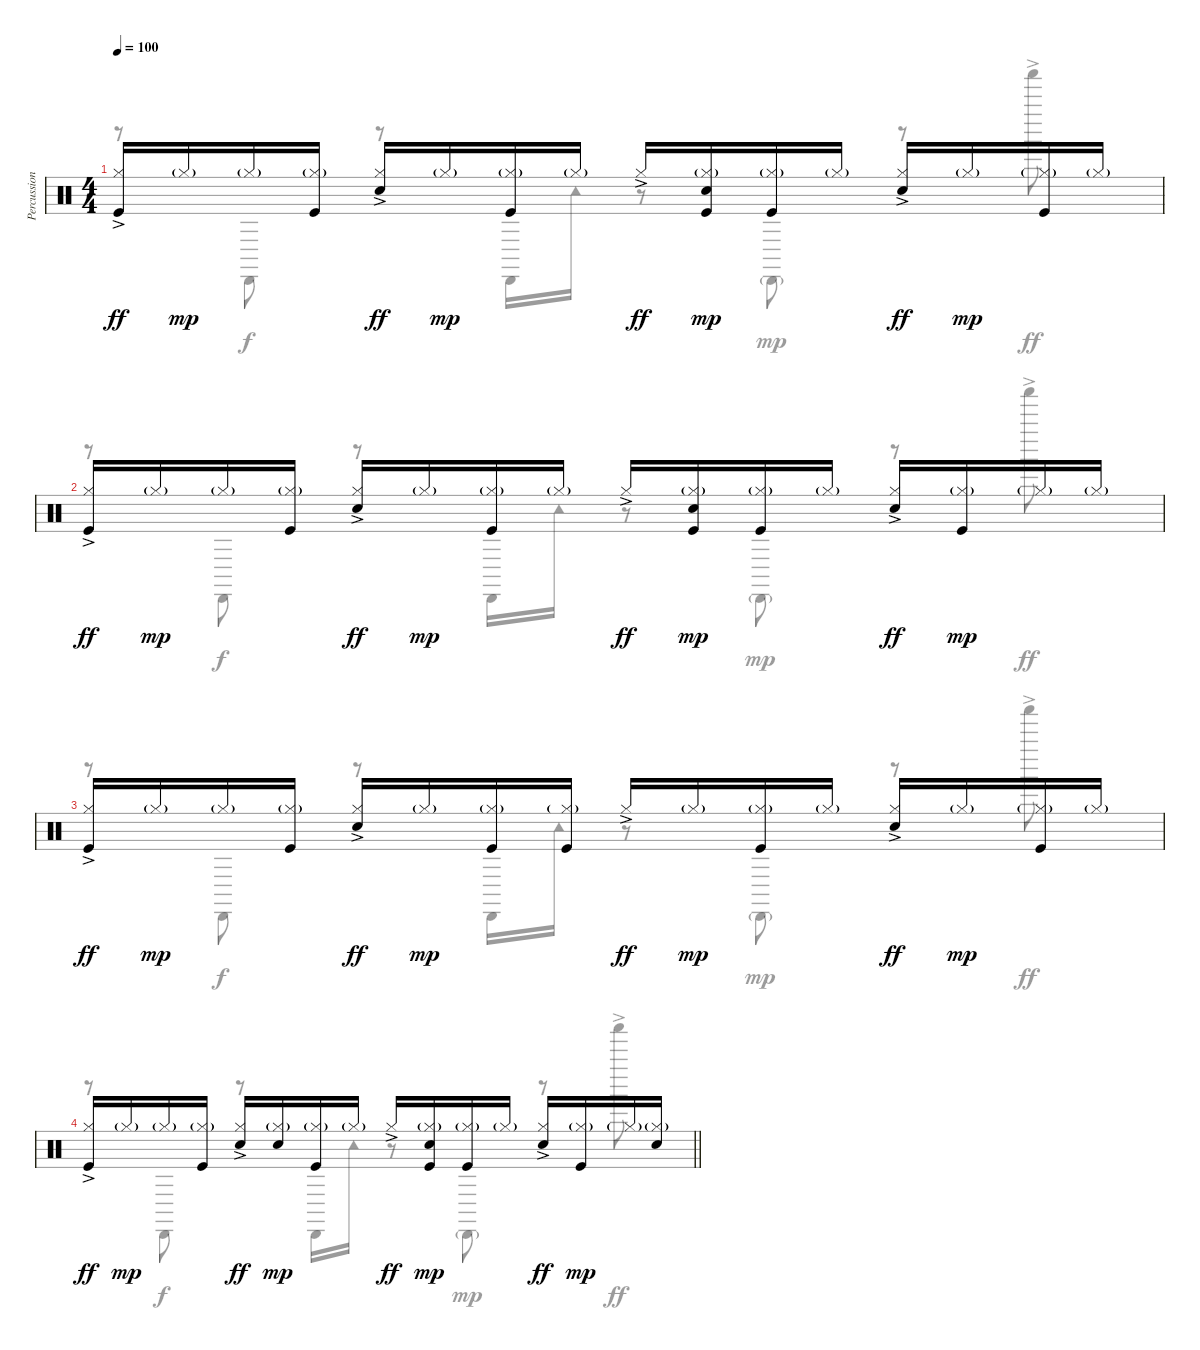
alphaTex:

\track ("Percussions" "Percussion") {instrument percussion}
\staff {score}
\articulation defaults
\voice
\ts (4 4)
\tempo 100
\clef neutral
\ks c
("Kick (hit)" "Hi-Hat (closed)"{ac}).16{dy ff} "Hi-Hat (closed)"{g}.16{dy mp} "Hi-Hat (closed)"{g}.16 ("Kick (hit)" "Hi-Hat (closed)"{g}).16 ("Electric Snare (hit)" "Hi-Hat (closed)"{ac}).16{dy ff} "Hi-Hat (closed)"{g}.16{dy mp} ("Kick (hit)" "Hi-Hat (closed)"{g}).16 "Hi-Hat (closed)"{g}.16 "Hi-Hat (closed)"{ac}.16{dy ff} ("Kick (hit)" "Electric Snare (hit)" "Hi-Hat (closed)"{g}).16{dy mp} ("Kick (hit)" "Hi-Hat (closed)"{g}).16 "Hi-Hat (closed)"{g}.16 ("Snare (hit) 2" "Hi-Hat (closed)"{ac}).16{dy ff} "Hi-Hat (closed)"{g}.16{dy mp} ("Kick (hit)" "Hi-Hat (closed)"{g}).16 "Hi-Hat (closed)"{g}.16 |
("Kick (hit)" "Hi-Hat (closed)"{ac}).16{dy ff} "Hi-Hat (closed)"{g}.16{dy mp} "Hi-Hat (closed)"{g}.16 ("Kick (hit)" "Hi-Hat (closed)"{g}).16 ("Electric Snare (hit)" "Hi-Hat (closed)"{ac}).16{dy ff} "Hi-Hat (closed)"{g}.16{dy mp} ("Kick (hit)" "Hi-Hat (closed)"{g}).16 "Hi-Hat (closed)"{g}.16 "Hi-Hat (closed)"{ac}.16{dy ff} ("Kick (hit)" "Electric Snare (hit)" "Hi-Hat (closed)"{g}).16{dy mp} ("Kick (hit)" "Hi-Hat (closed)"{g}).16 "Hi-Hat (closed)"{g}.16 ("Snare (hit) 2" "Hi-Hat (closed)"{ac}).16{dy ff} ("Kick (hit)" "Hi-Hat (closed)"{g}).16{dy mp} "Hi-Hat (closed)"{g}.16 "Hi-Hat (closed)"{g}.16 |
("Kick (hit)" "Hi-Hat (closed)"{ac}).16{dy ff} "Hi-Hat (closed)"{g}.16{dy mp} "Hi-Hat (closed)"{g}.16 ("Kick (hit)" "Hi-Hat (closed)"{g}).16 ("Electric Snare (hit)" "Hi-Hat (closed)"{ac}).16{dy ff} "Hi-Hat (closed)"{g}.16{dy mp} ("Kick (hit)" "Hi-Hat (closed)"{g}).16 ("Kick (hit)" "Hi-Hat (closed)"{g}).16 "Hi-Hat (closed)"{ac}.16{dy ff} "Hi-Hat (closed)"{g}.16{dy mp} ("Kick (hit)" "Hi-Hat (closed)"{g}).16 "Hi-Hat (closed)"{g}.16 ("Snare (hit) 2" "Hi-Hat (closed)"{ac}).16{dy ff} "Hi-Hat (closed)"{g}.16{dy mp} ("Kick (hit)" "Hi-Hat (closed)"{g}).16 "Hi-Hat (closed)"{g}.16 |
\barLineRight lightlight
("Kick (hit)" "Hi-Hat (closed)"{ac}).16{dy ff} "Hi-Hat (closed)"{g}.16{dy mp} "Hi-Hat (closed)"{g}.16 ("Kick (hit)" "Hi-Hat (closed)"{g}).16 ("Electric Snare (hit)" "Hi-Hat (closed)"{ac}).16{dy ff} ("Electric Snare (hit)" "Hi-Hat (closed)"{g}).16{dy mp} ("Kick (hit)" "Hi-Hat (closed)"{g}).16 "Hi-Hat (closed)"{g}.16 "Hi-Hat (closed)"{ac}.16{dy ff} ("Kick (hit)" "Electric Snare (hit)" "Hi-Hat (closed)"{g}).16{dy mp} ("Kick (hit)" "Hi-Hat (closed)"{g}).16 "Hi-Hat (closed)"{g}.16 ("Electric Snare (hit)" "Hi-Hat (closed)"{ac}).16{dy ff} ("Kick (hit)" "Hi-Hat (closed)"{g}).16{dy mp} "Hi-Hat (closed)"{g}.16 ("Electric Snare (hit)" "Hi-Hat (closed)"{g}).16
\voice
\clef neutral
\ottava regular
\simile none
\ks c
r.8{dy ff} "Cabasa (hit)".8{dy f} r.8 "Cabasa (hit)".16 "Tambourine (hit)".16 r.8 "Cabasa (hit)"{g}.8{dy mp} r.8 "Shaker (hit)"{ac}.8{dy ff} |
r.8 "Cabasa (hit)".8{dy f} r.8 "Cabasa (hit)".16 "Tambourine (hit)".16 r.8 "Cabasa (hit)"{g}.8{dy mp} r.8 "Shaker (hit)"{ac}.8{dy ff} |
r.8 "Cabasa (hit)".8{dy f} r.8 "Cabasa (hit)".16 "Tambourine (hit)".16 r.8 "Cabasa (hit)"{g}.8{dy mp} r.8 "Shaker (hit)"{ac}.8{dy ff} |
\barLineRight lightlight
r.8 "Cabasa (hit)".8{dy f} r.8 "Cabasa (hit)".16 "Tambourine (hit)".16 r.8 "Cabasa (hit)"{g}.8{dy mp} r.8 "Shaker (hit)"{ac}.8{dy ff}
